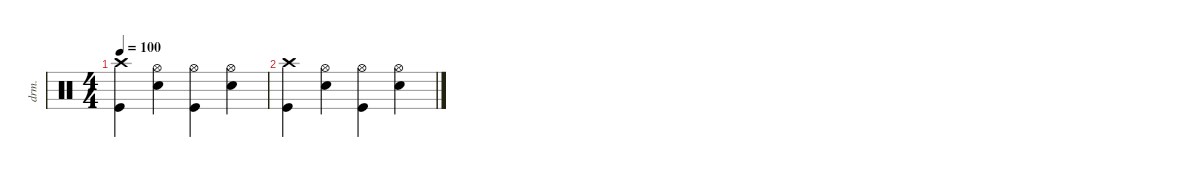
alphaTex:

\defaultSystemsLayout 4
\hideDynamics
\bracketExtendMode nobrackets
\otherSystemsTrackNameOrientation horizontal
\track ("Drumkit" "drm.") {instrument percussion}
\staff {score}
\articulation defaults
\ts (4 4)
\tempo 100
\clef neutral
\ks c
("Crash high (hit)" "Kick (hit)").4{dy f} ("Hi-Hat (open)" "Snare (hit) 2").4 ("Hi-Hat (open)" "Kick (hit)").4 ("Hi-Hat (open)" "Snare (hit) 2").4 |
("Crash high (hit)" "Kick (hit)").4 ("Hi-Hat (open)" "Snare (hit) 2").4 ("Hi-Hat (open)" "Kick (hit)").4 ("Hi-Hat (open)" "Snare (hit) 2").4
